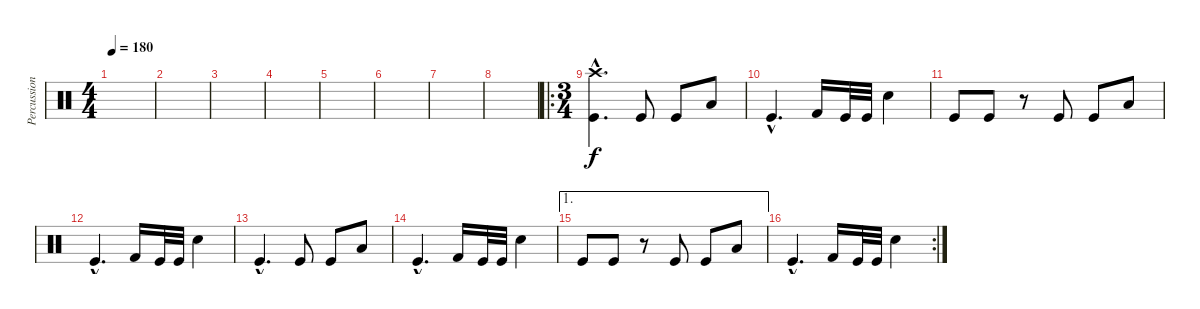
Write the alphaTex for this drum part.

\track ("Percussion" "Percussion") {instrument percussion}
\staff {score}
\articulation defaults
\ts (4 4)
\tempo 180
\clef neutral
\ks c
|
|
|
|
|
|
|
|
\ro
\ts (3 4)
("Crash high (hit)"{hac} "Kick (hit)"{hac}).4{d} "Kick (hit)".8 "Kick (hit)".8 "Low Floor Tom (hit)".8 |
"Kick (hit)"{hac}.4{d} "Kick (hit) 2".16 "Kick (hit)".32 "Kick (hit)".32 "Snare (hit) 2".4 |
"Kick (hit)".8 "Kick (hit)".8 r.8 "Kick (hit)".8 "Kick (hit)".8 "Low Floor Tom (hit)".8 |
"Kick (hit)"{hac}.4{d} "Kick (hit) 2".16 "Kick (hit)".32 "Kick (hit)".32 "Snare (hit) 2".4 |
"Kick (hit)"{hac}.4{d} "Kick (hit)".8 "Kick (hit)".8 "Low Floor Tom (hit)".8 |
"Kick (hit)"{hac}.4{d} "Kick (hit) 2".16 "Kick (hit)".32 "Kick (hit)".32 "Snare (hit) 2".4 |
\ae 1 "Kick (hit)".8 "Kick (hit)".8
r.8 "Kick (hit)".8 "Kick (hit)".8 "Low Floor Tom (hit)".8 |
\rc 2 "Kick (hit)"{hac}.4{d} "Kick (hit) 2".16 "Kick (hit)".32 "Kick (hit)".32 "Snare (hit) 2".4
